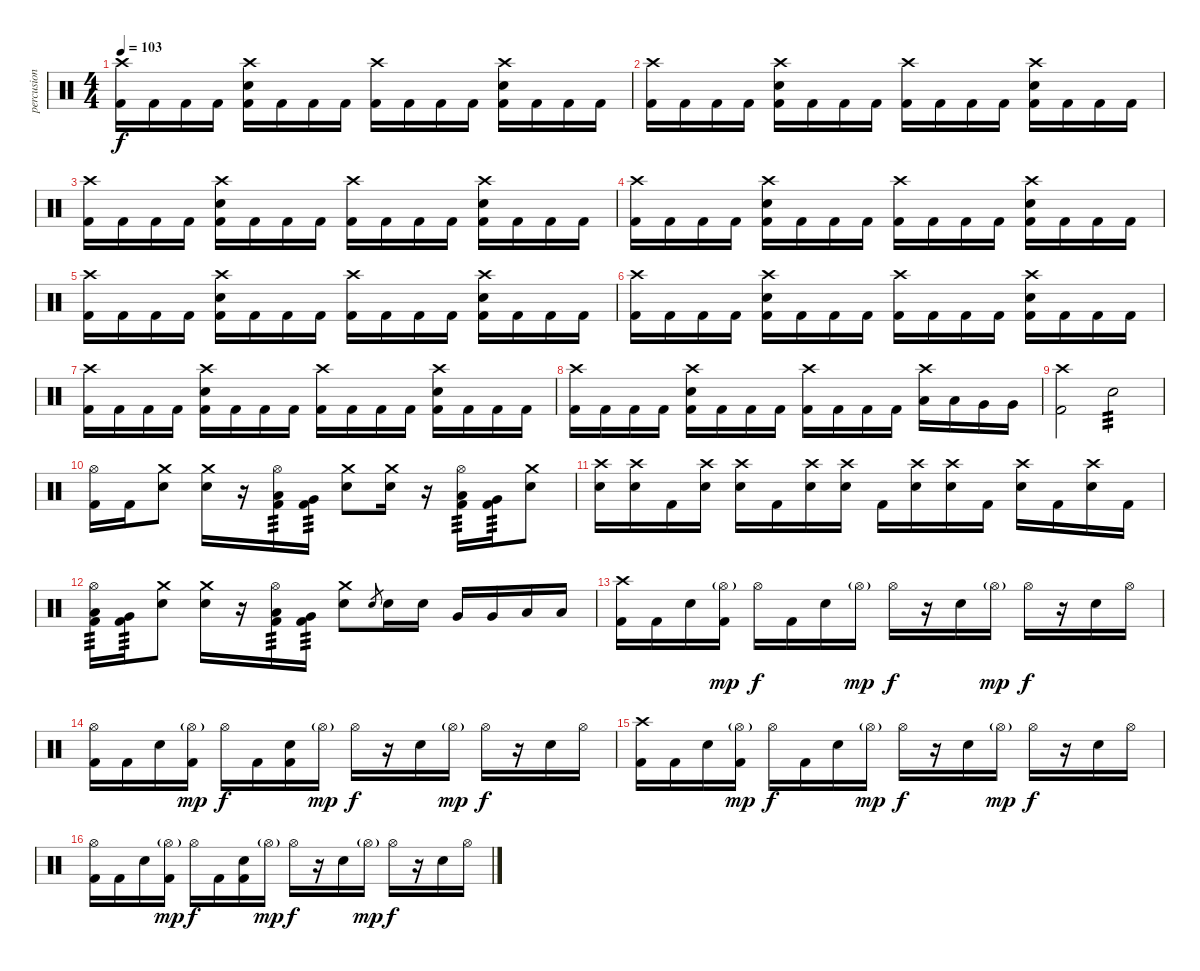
\track ("percusion" "percusion") {instrument percussion}
\staff {score}
\articulation defaults
\ts (4 4)
\tempo 103
\clef neutral
\ks c
("Crash high (hit)" "Kick (hit) 2").16{dy f} "Kick (hit) 2".16 "Kick (hit) 2".16 "Kick (hit) 2".16 ("Crash high (hit)" "Electric Snare (hit)" "Kick (hit) 2").16 "Kick (hit) 2".16 "Kick (hit) 2".16 "Kick (hit) 2".16 ("Crash high (hit)" "Kick (hit) 2").16 "Kick (hit) 2".16 "Kick (hit) 2".16 "Kick (hit) 2".16 ("Crash high (hit)" "Electric Snare (hit)" "Kick (hit) 2").16 "Kick (hit) 2".16 "Kick (hit) 2".16 "Kick (hit) 2".16 |
("Crash high (hit)" "Kick (hit) 2").16 "Kick (hit) 2".16 "Kick (hit) 2".16 "Kick (hit) 2".16 ("Crash high (hit)" "Electric Snare (hit)" "Kick (hit) 2").16 "Kick (hit) 2".16 "Kick (hit) 2".16 "Kick (hit) 2".16 ("Crash high (hit)" "Kick (hit) 2").16 "Kick (hit) 2".16 "Kick (hit) 2".16 "Kick (hit) 2".16 ("Crash high (hit)" "Electric Snare (hit)" "Kick (hit) 2").16 "Kick (hit) 2".16 "Kick (hit) 2".16 "Kick (hit) 2".16 |
("Crash high (hit)" "Kick (hit) 2").16 "Kick (hit) 2".16 "Kick (hit) 2".16 "Kick (hit) 2".16 ("Crash high (hit)" "Electric Snare (hit)" "Kick (hit) 2").16 "Kick (hit) 2".16 "Kick (hit) 2".16 "Kick (hit) 2".16 ("Crash high (hit)" "Kick (hit) 2").16 "Kick (hit) 2".16 "Kick (hit) 2".16 "Kick (hit) 2".16 ("Crash high (hit)" "Electric Snare (hit)" "Kick (hit) 2").16 "Kick (hit) 2".16 "Kick (hit) 2".16 "Kick (hit) 2".16 |
("Crash high (hit)" "Kick (hit) 2").16 "Kick (hit) 2".16 "Kick (hit) 2".16 "Kick (hit) 2".16 ("Crash high (hit)" "Electric Snare (hit)" "Kick (hit) 2").16 "Kick (hit) 2".16 "Kick (hit) 2".16 "Kick (hit) 2".16 ("Crash high (hit)" "Kick (hit) 2").16 "Kick (hit) 2".16 "Kick (hit) 2".16 "Kick (hit) 2".16 ("Crash high (hit)" "Electric Snare (hit)" "Kick (hit) 2").16 "Kick (hit) 2".16 "Kick (hit) 2".16 "Kick (hit) 2".16 |
("Crash high (hit)" "Kick (hit) 2").16 "Kick (hit) 2".16 "Kick (hit) 2".16 "Kick (hit) 2".16 ("Crash high (hit)" "Electric Snare (hit)" "Kick (hit) 2").16 "Kick (hit) 2".16 "Kick (hit) 2".16 "Kick (hit) 2".16 ("Crash high (hit)" "Kick (hit) 2").16 "Kick (hit) 2".16 "Kick (hit) 2".16 "Kick (hit) 2".16 ("Crash high (hit)" "Electric Snare (hit)" "Kick (hit) 2").16 "Kick (hit) 2".16 "Kick (hit) 2".16 "Kick (hit) 2".16 |
("Crash high (hit)" "Kick (hit) 2").16 "Kick (hit) 2".16 "Kick (hit) 2".16 "Kick (hit) 2".16 ("Crash high (hit)" "Electric Snare (hit)" "Kick (hit) 2").16 "Kick (hit) 2".16 "Kick (hit) 2".16 "Kick (hit) 2".16 ("Crash high (hit)" "Kick (hit) 2").16 "Kick (hit) 2".16 "Kick (hit) 2".16 "Kick (hit) 2".16 ("Crash high (hit)" "Electric Snare (hit)" "Kick (hit) 2").16 "Kick (hit) 2".16 "Kick (hit) 2".16 "Kick (hit) 2".16 |
("Crash high (hit)" "Kick (hit) 2").16 "Kick (hit) 2".16 "Kick (hit) 2".16 "Kick (hit) 2".16 ("Crash high (hit)" "Electric Snare (hit)" "Kick (hit) 2").16 "Kick (hit) 2".16 "Kick (hit) 2".16 "Kick (hit) 2".16 ("Crash high (hit)" "Kick (hit) 2").16 "Kick (hit) 2".16 "Kick (hit) 2".16 "Kick (hit) 2".16 ("Crash high (hit)" "Electric Snare (hit)" "Kick (hit) 2").16 "Kick (hit) 2".16 "Kick (hit) 2".16 "Kick (hit) 2".16 |
("Crash high (hit)" "Kick (hit) 2").16 "Kick (hit) 2".16 "Kick (hit) 2".16 "Kick (hit) 2".16 ("Crash high (hit)" "Electric Snare (hit)" "Kick (hit) 2").16 "Kick (hit) 2".16 "Kick (hit) 2".16 "Kick (hit) 2".16 ("Crash high (hit)" "Kick (hit) 2").16 "Kick (hit) 2".16 "Kick (hit) 2".16 "Kick (hit) 2".16 ("Crash high (hit)" "Low Tom (hit)").16 "Low Tom (hit)".16 "Very Low Tom (hit)".16 "Very Low Tom (hit)".16 |
("Crash high (hit)" "Kick (hit) 2").2 "Electric Snare (hit)".2{tp 3} |
("Hi-Hat (open)" "Kick (hit) 2").16 "Kick (hit) 2".16 ("Crash medium (hit)" "Electric Snare (hit)").8 ("Crash medium (hit)" "Electric Snare (hit)").16 r.16 ("Hi-Hat (open)" "Low Tom (hit)" "Kick (hit) 2").16{tp 3} ("Very Low Tom (hit)" "Kick (hit) 2").16{tp 3} ("Crash medium (hit)" "Electric Snare (hit)").8 ("Crash medium (hit)" "Electric Snare (hit)").16 r.16 ("Hi-Hat (open)" "Low Tom (hit)" "Kick (hit) 2").16{tp 3} ("Very Low Tom (hit)" "Kick (hit) 2").16{tp 3} ("Crash medium (hit)" "Electric Snare (hit)").8 |
("Crash high (hit)" "Electric Snare (hit)").16 ("Crash high (hit)" "Electric Snare (hit)").16 "Kick (hit) 2".16 ("Crash high (hit)" "Electric Snare (hit)").16 ("Crash high (hit)" "Electric Snare (hit)").16 "Kick (hit) 2".16 ("Crash high (hit)" "Electric Snare (hit)").16 ("Crash high (hit)" "Electric Snare (hit)").16 "Kick (hit) 2".16 ("Crash high (hit)" "Electric Snare (hit)").16 ("Crash high (hit)" "Electric Snare (hit)").16 "Kick (hit) 2".16 ("Crash high (hit)" "Electric Snare (hit)").16 "Kick (hit) 2".16 ("Crash high (hit)" "Electric Snare (hit)").16 "Kick (hit) 2".16 |
("Hi-Hat (open)" "Low Tom (hit)" "Kick (hit) 2").16{tp 3} ("Very Low Tom (hit)" "Kick (hit) 2").16{tp 3} ("Crash medium (hit)" "Electric Snare (hit)").8 ("Crash medium (hit)" "Electric Snare (hit)").16 r.16 ("Hi-Hat (open)" "Low Tom (hit)" "Kick (hit) 2").16{tp 3} ("Very Low Tom (hit)" "Kick (hit) 2").16{tp 3} ("Crash medium (hit)" "Electric Snare (hit)").8 "Electric Snare (hit)".8{gr} "Electric Snare (hit)".16 "Electric Snare (hit)".16 "Very Low Tom (hit)".16 "Very Low Tom (hit)".16 "Low Tom (hit)".16 "Low Tom (hit)".16 |
("Crash high (hit)" "Kick (hit) 2").16 "Kick (hit) 2".16 "Electric Snare (hit)".16 ("Hi-Hat (open)"{g} "Kick (hit) 2").16{dy mp} "Hi-Hat (open)".16{dy f} "Kick (hit) 2".16 "Electric Snare (hit)".16 "Hi-Hat (open)"{g}.16{dy mp} "Hi-Hat (open)".16{dy f} r.16 "Electric Snare (hit)".16 "Hi-Hat (open)"{g}.16{dy mp} "Hi-Hat (open)".16{dy f} r.16 "Electric Snare (hit)".16 "Hi-Hat (open)".16 |
("Hi-Hat (open)" "Kick (hit) 2").16 "Kick (hit) 2".16 "Electric Snare (hit)".16 ("Hi-Hat (open)"{g} "Kick (hit) 2").16{dy mp} "Hi-Hat (open)".16{dy f} "Kick (hit) 2".16 ("Electric Snare (hit)" "Kick (hit) 2").16 "Hi-Hat (open)"{g}.16{dy mp} "Hi-Hat (open)".16{dy f} r.16 "Electric Snare (hit)".16 "Hi-Hat (open)"{g}.16{dy mp} "Hi-Hat (open)".16{dy f} r.16 "Electric Snare (hit)".16 "Hi-Hat (open)".16 |
("Crash high (hit)" "Kick (hit) 2").16 "Kick (hit) 2".16 "Electric Snare (hit)".16 ("Hi-Hat (open)"{g} "Kick (hit) 2").16{dy mp} "Hi-Hat (open)".16{dy f} "Kick (hit) 2".16 "Electric Snare (hit)".16 "Hi-Hat (open)"{g}.16{dy mp} "Hi-Hat (open)".16{dy f} r.16 "Electric Snare (hit)".16 "Hi-Hat (open)"{g}.16{dy mp} "Hi-Hat (open)".16{dy f} r.16 "Electric Snare (hit)".16 "Hi-Hat (open)".16 |
("Hi-Hat (open)" "Kick (hit) 2").16 "Kick (hit) 2".16 "Electric Snare (hit)".16 ("Hi-Hat (open)"{g} "Kick (hit) 2").16{dy mp} "Hi-Hat (open)".16{dy f} "Kick (hit) 2".16 ("Electric Snare (hit)" "Kick (hit) 2").16 "Hi-Hat (open)"{g}.16{dy mp} "Hi-Hat (open)".16{dy f} r.16 "Electric Snare (hit)".16 "Hi-Hat (open)"{g}.16{dy mp} "Hi-Hat (open)".16{dy f} r.16 "Electric Snare (hit)".16 "Hi-Hat (open)".16
